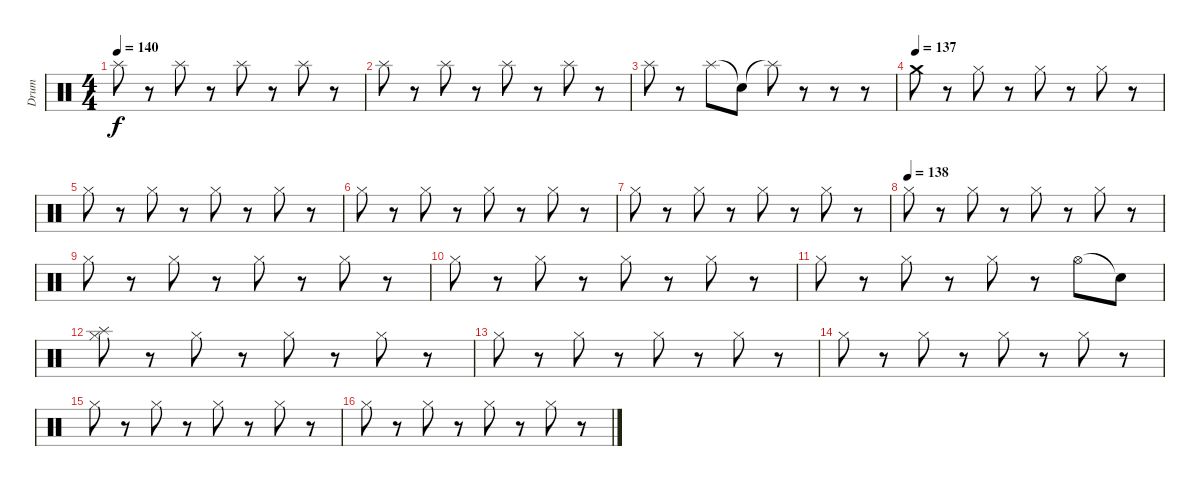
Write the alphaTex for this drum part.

\track ("Drum" "Drum") {instrument percussion}
\staff {score}
\articulation defaults
\ts (4 4)
\tempo 140
\clef neutral
\ks c "Splash (hit)".8{dy f}
r.8 "Splash (hit)".8 r.8 "Splash (hit)".8 r.8 "Splash (hit)".8 r.8 |
"Splash (hit)".8 r.8 "Splash (hit)".8 r.8 "Splash (hit)".8 r.8 "Splash (hit)".8 r.8 |
"Splash (hit)".8 r.8 "Splash (hit)".8 "Snare (hit)"{t}.8 "Splash (hit)"{t}.8 r.8 r.8 r.8 |
\tempo (137)
"Crash medium (hit)".8 r.8 "Hi-Hat (closed)".8 r.8 "Hi-Hat (closed)".8 r.8 "Hi-Hat (closed)".8 r.8 |
"Hi-Hat (closed)".8 r.8 "Hi-Hat (closed)".8 r.8 "Hi-Hat (closed)".8 r.8 "Hi-Hat (closed)".8 r.8 |
"Hi-Hat (closed)".8 r.8 "Hi-Hat (closed)".8 r.8 "Hi-Hat (closed)".8 r.8 "Hi-Hat (closed)".8 r.8 |
"Hi-Hat (closed)".8 r.8 "Hi-Hat (closed)".8 r.8 "Hi-Hat (closed)".8 r.8 "Hi-Hat (closed)".8 r.8 |
\tempo (138)
"Hi-Hat (closed)".8 r.8 "Hi-Hat (closed)".8 r.8 "Hi-Hat (closed)".8 r.8 "Hi-Hat (closed)".8 r.8 |
"Hi-Hat (closed)".8 r.8 "Hi-Hat (closed)".8 r.8 "Hi-Hat (closed)".8 r.8 "Hi-Hat (closed)".8 r.8 |
"Hi-Hat (closed)".8 r.8 "Hi-Hat (closed)".8 r.8 "Hi-Hat (closed)".8 r.8 "Hi-Hat (closed)".8 r.8 |
"Hi-Hat (closed)".8 r.8 "Hi-Hat (closed)".8 r.8 "Hi-Hat (closed)".8 r.8 "Hi-Hat (open)".8 "Snare (hit)"{t}.8 |
("Splash (hit)" "Hi-Hat (closed)").8 r.8 "Hi-Hat (closed)".8 r.8 "Hi-Hat (closed)".8 r.8 "Hi-Hat (closed)".8 r.8 |
"Hi-Hat (closed)".8 r.8 "Hi-Hat (closed)".8 r.8 "Hi-Hat (closed)".8 r.8 "Hi-Hat (closed)".8 r.8 |
"Hi-Hat (closed)".8 r.8 "Hi-Hat (closed)".8 r.8 "Hi-Hat (closed)".8 r.8 "Hi-Hat (closed)".8 r.8 |
"Hi-Hat (closed)".8 r.8 "Hi-Hat (closed)".8 r.8 "Hi-Hat (closed)".8 r.8 "Hi-Hat (closed)".8 r.8 |
"Hi-Hat (closed)".8 r.8 "Hi-Hat (closed)".8 r.8 "Hi-Hat (closed)".8 r.8 "Hi-Hat (closed)".8 r.8
